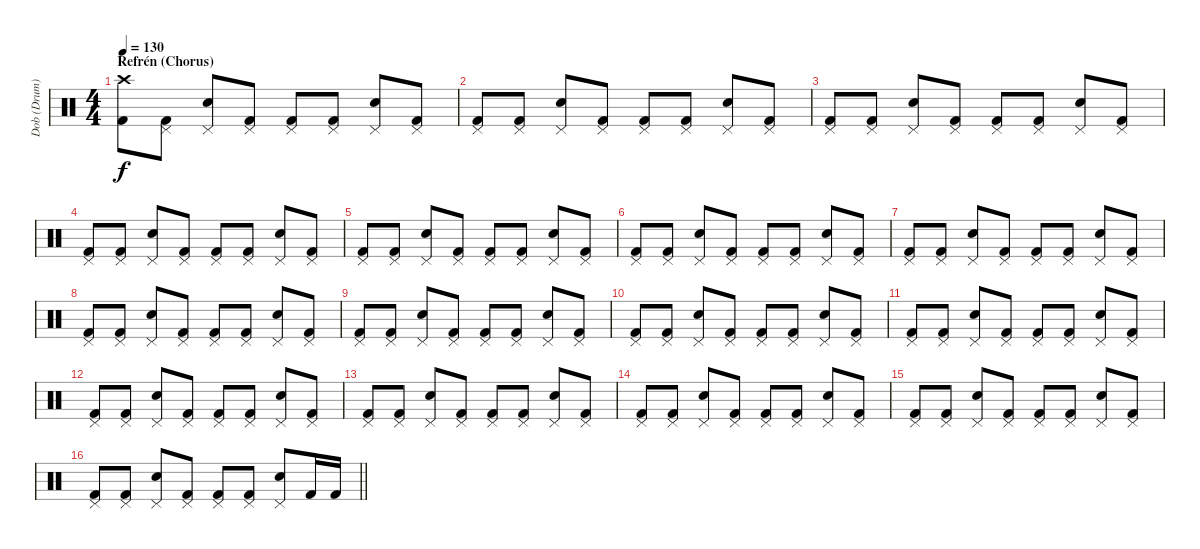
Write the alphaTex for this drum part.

\track ("Dob (Drum)" "Dob (Drum)") {instrument percussion}
\staff {score}
\articulation defaults
\ts (4 4)
\section ("" "Refrén (Chorus)")
\tempo 130
\clef neutral
\ks c
("Crash high (hit)" "Kick (hit) 2").8{dy f} ("Pedal Hi-Hat (hit)" "Kick (hit) 2").8 ("Pedal Hi-Hat (hit)" "Electric Snare (hit)").8 ("Pedal Hi-Hat (hit)" "Kick (hit) 2").8 ("Pedal Hi-Hat (hit)" "Kick (hit) 2").8 ("Pedal Hi-Hat (hit)" "Kick (hit) 2").8 ("Pedal Hi-Hat (hit)" "Electric Snare (hit)").8 ("Pedal Hi-Hat (hit)" "Kick (hit) 2").8 |
("Pedal Hi-Hat (hit)" "Kick (hit) 2").8 ("Pedal Hi-Hat (hit)" "Kick (hit) 2").8 ("Pedal Hi-Hat (hit)" "Electric Snare (hit)").8 ("Pedal Hi-Hat (hit)" "Kick (hit) 2").8 ("Pedal Hi-Hat (hit)" "Kick (hit) 2").8 ("Pedal Hi-Hat (hit)" "Kick (hit) 2").8 ("Pedal Hi-Hat (hit)" "Electric Snare (hit)").8 ("Pedal Hi-Hat (hit)" "Kick (hit) 2").8 |
("Pedal Hi-Hat (hit)" "Kick (hit) 2").8 ("Pedal Hi-Hat (hit)" "Kick (hit) 2").8 ("Pedal Hi-Hat (hit)" "Electric Snare (hit)").8 ("Pedal Hi-Hat (hit)" "Kick (hit) 2").8 ("Pedal Hi-Hat (hit)" "Kick (hit) 2").8 ("Pedal Hi-Hat (hit)" "Kick (hit) 2").8 ("Pedal Hi-Hat (hit)" "Electric Snare (hit)").8 ("Pedal Hi-Hat (hit)" "Kick (hit) 2").8 |
("Pedal Hi-Hat (hit)" "Kick (hit) 2").8 ("Pedal Hi-Hat (hit)" "Kick (hit) 2").8 ("Pedal Hi-Hat (hit)" "Electric Snare (hit)").8 ("Pedal Hi-Hat (hit)" "Kick (hit) 2").8 ("Pedal Hi-Hat (hit)" "Kick (hit) 2").8 ("Pedal Hi-Hat (hit)" "Kick (hit) 2").8 ("Pedal Hi-Hat (hit)" "Electric Snare (hit)").8 ("Pedal Hi-Hat (hit)" "Kick (hit) 2").8 |
("Pedal Hi-Hat (hit)" "Kick (hit) 2").8 ("Pedal Hi-Hat (hit)" "Kick (hit) 2").8 ("Pedal Hi-Hat (hit)" "Electric Snare (hit)").8 ("Pedal Hi-Hat (hit)" "Kick (hit) 2").8 ("Pedal Hi-Hat (hit)" "Kick (hit) 2").8 ("Pedal Hi-Hat (hit)" "Kick (hit) 2").8 ("Pedal Hi-Hat (hit)" "Electric Snare (hit)").8 ("Pedal Hi-Hat (hit)" "Kick (hit) 2").8 |
("Pedal Hi-Hat (hit)" "Kick (hit) 2").8 ("Pedal Hi-Hat (hit)" "Kick (hit) 2").8 ("Pedal Hi-Hat (hit)" "Electric Snare (hit)").8 ("Pedal Hi-Hat (hit)" "Kick (hit) 2").8 ("Pedal Hi-Hat (hit)" "Kick (hit) 2").8 ("Pedal Hi-Hat (hit)" "Kick (hit) 2").8 ("Pedal Hi-Hat (hit)" "Electric Snare (hit)").8 ("Pedal Hi-Hat (hit)" "Kick (hit) 2").8 |
("Pedal Hi-Hat (hit)" "Kick (hit) 2").8 ("Pedal Hi-Hat (hit)" "Kick (hit) 2").8 ("Pedal Hi-Hat (hit)" "Electric Snare (hit)").8 ("Pedal Hi-Hat (hit)" "Kick (hit) 2").8 ("Pedal Hi-Hat (hit)" "Kick (hit) 2").8 ("Pedal Hi-Hat (hit)" "Kick (hit) 2").8 ("Pedal Hi-Hat (hit)" "Electric Snare (hit)").8 ("Pedal Hi-Hat (hit)" "Kick (hit) 2").8 |
("Pedal Hi-Hat (hit)" "Kick (hit) 2").8 ("Pedal Hi-Hat (hit)" "Kick (hit) 2").8 ("Pedal Hi-Hat (hit)" "Electric Snare (hit)").8 ("Pedal Hi-Hat (hit)" "Kick (hit) 2").8 ("Pedal Hi-Hat (hit)" "Kick (hit) 2").8 ("Pedal Hi-Hat (hit)" "Kick (hit) 2").8 ("Pedal Hi-Hat (hit)" "Electric Snare (hit)").8 ("Pedal Hi-Hat (hit)" "Kick (hit) 2").8 |
("Pedal Hi-Hat (hit)" "Kick (hit) 2").8 ("Pedal Hi-Hat (hit)" "Kick (hit) 2").8 ("Pedal Hi-Hat (hit)" "Electric Snare (hit)").8 ("Pedal Hi-Hat (hit)" "Kick (hit) 2").8 ("Pedal Hi-Hat (hit)" "Kick (hit) 2").8 ("Pedal Hi-Hat (hit)" "Kick (hit) 2").8 ("Pedal Hi-Hat (hit)" "Electric Snare (hit)").8 ("Pedal Hi-Hat (hit)" "Kick (hit) 2").8 |
("Pedal Hi-Hat (hit)" "Kick (hit) 2").8 ("Pedal Hi-Hat (hit)" "Kick (hit) 2").8 ("Pedal Hi-Hat (hit)" "Electric Snare (hit)").8 ("Pedal Hi-Hat (hit)" "Kick (hit) 2").8 ("Pedal Hi-Hat (hit)" "Kick (hit) 2").8 ("Pedal Hi-Hat (hit)" "Kick (hit) 2").8 ("Pedal Hi-Hat (hit)" "Electric Snare (hit)").8 ("Pedal Hi-Hat (hit)" "Kick (hit) 2").8 |
("Pedal Hi-Hat (hit)" "Kick (hit) 2").8 ("Pedal Hi-Hat (hit)" "Kick (hit) 2").8 ("Pedal Hi-Hat (hit)" "Electric Snare (hit)").8 ("Pedal Hi-Hat (hit)" "Kick (hit) 2").8 ("Pedal Hi-Hat (hit)" "Kick (hit) 2").8 ("Pedal Hi-Hat (hit)" "Kick (hit) 2").8 ("Pedal Hi-Hat (hit)" "Electric Snare (hit)").8 ("Pedal Hi-Hat (hit)" "Kick (hit) 2").8 |
("Pedal Hi-Hat (hit)" "Kick (hit) 2").8 ("Pedal Hi-Hat (hit)" "Kick (hit) 2").8 ("Pedal Hi-Hat (hit)" "Electric Snare (hit)").8 ("Pedal Hi-Hat (hit)" "Kick (hit) 2").8 ("Pedal Hi-Hat (hit)" "Kick (hit) 2").8 ("Pedal Hi-Hat (hit)" "Kick (hit) 2").8 ("Pedal Hi-Hat (hit)" "Electric Snare (hit)").8 ("Pedal Hi-Hat (hit)" "Kick (hit) 2").8 |
("Pedal Hi-Hat (hit)" "Kick (hit) 2").8 ("Pedal Hi-Hat (hit)" "Kick (hit) 2").8 ("Pedal Hi-Hat (hit)" "Electric Snare (hit)").8 ("Pedal Hi-Hat (hit)" "Kick (hit) 2").8 ("Pedal Hi-Hat (hit)" "Kick (hit) 2").8 ("Pedal Hi-Hat (hit)" "Kick (hit) 2").8 ("Pedal Hi-Hat (hit)" "Electric Snare (hit)").8 ("Pedal Hi-Hat (hit)" "Kick (hit) 2").8 |
("Pedal Hi-Hat (hit)" "Kick (hit) 2").8 ("Pedal Hi-Hat (hit)" "Kick (hit) 2").8 ("Pedal Hi-Hat (hit)" "Electric Snare (hit)").8 ("Pedal Hi-Hat (hit)" "Kick (hit) 2").8 ("Pedal Hi-Hat (hit)" "Kick (hit) 2").8 ("Pedal Hi-Hat (hit)" "Kick (hit) 2").8 ("Pedal Hi-Hat (hit)" "Electric Snare (hit)").8 ("Pedal Hi-Hat (hit)" "Kick (hit) 2").8 |
("Pedal Hi-Hat (hit)" "Kick (hit) 2").8 ("Pedal Hi-Hat (hit)" "Kick (hit) 2").8 ("Pedal Hi-Hat (hit)" "Electric Snare (hit)").8 ("Pedal Hi-Hat (hit)" "Kick (hit) 2").8 ("Pedal Hi-Hat (hit)" "Kick (hit) 2").8 ("Pedal Hi-Hat (hit)" "Kick (hit) 2").8 ("Pedal Hi-Hat (hit)" "Electric Snare (hit)").8 ("Pedal Hi-Hat (hit)" "Kick (hit) 2").8 |
\barLineRight lightlight
("Pedal Hi-Hat (hit)" "Kick (hit) 2").8 ("Pedal Hi-Hat (hit)" "Kick (hit) 2").8 ("Pedal Hi-Hat (hit)" "Electric Snare (hit)").8 ("Pedal Hi-Hat (hit)" "Kick (hit) 2").8 ("Pedal Hi-Hat (hit)" "Kick (hit) 2").8 ("Pedal Hi-Hat (hit)" "Kick (hit) 2").8 ("Pedal Hi-Hat (hit)" "Electric Snare (hit)").8 "Kick (hit) 2".16 "Kick (hit) 2".16
